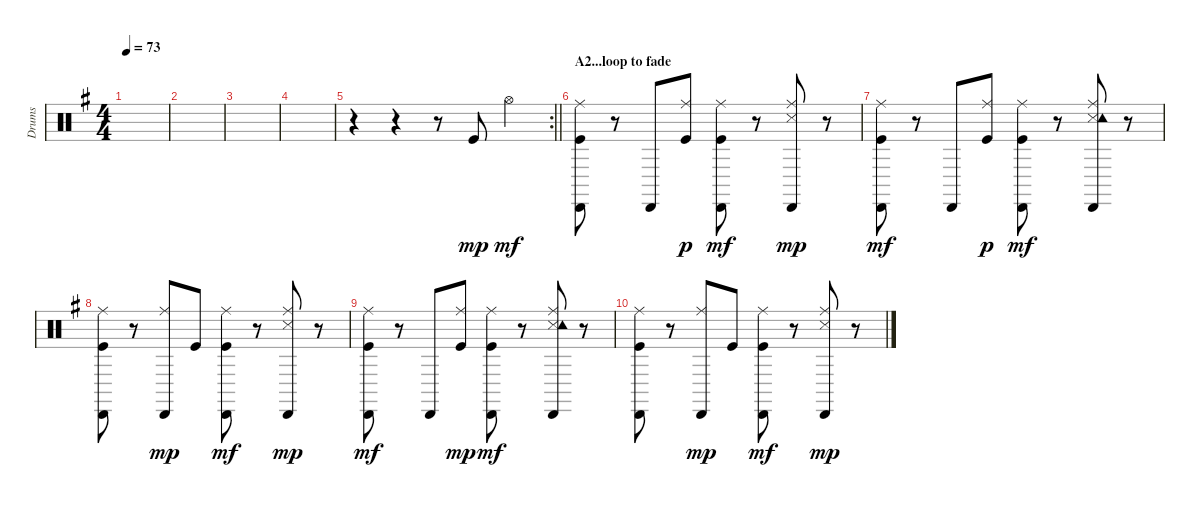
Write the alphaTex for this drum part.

\track ("Drums" "Drums") {instrument percussion}
\staff {score}
\articulation defaults
\ts (4 4)
\tempo 73
\clef neutral
\ks g
|
|
|
|
\rc 2
\barLineRight lightlight
r.4 r.4 r.8 "Kick (hit)".8{dy mp} "Hi-Hat (open)".4{dy mf} |
\section ("" "A2...loop to fade")
("Cabasa (hit)" "Ride (middle)" "Kick (hit)").8 r.8 "Cabasa (hit)".8 ("Ride (middle)" "Kick (hit)").8{dy p} ("Cabasa (hit)" "Ride (middle)" "Kick (hit)").8{dy mf} r.8 ("Cabasa (hit)" "Ride (middle)" "Snare (side stick) 3").8{dy mp} r.8 |
("Cabasa (hit)" "Ride (middle)" "Kick (hit)").8{dy mf} r.8 "Cabasa (hit)".8 ("Ride (middle)" "Kick (hit)").8{dy p} ("Cabasa (hit)" "Ride (middle)" "Kick (hit)").8{dy mf} r.8 ("Cabasa (hit)" "Ride (middle)" "Snare (side stick) 3" "Tambourine (hit)").8 r.8 |
("Cabasa (hit)" "Ride (middle)" "Kick (hit)").8 r.8 ("Cabasa (hit)" "Ride (middle)").8{dy mp} "Kick (hit)".8 ("Cabasa (hit)" "Ride (middle)" "Kick (hit)").8{dy mf} r.8 ("Cabasa (hit)" "Ride (middle)" "Snare (side stick) 3").8{dy mp} r.8 |
("Cabasa (hit)" "Ride (middle)" "Kick (hit)").8{dy mf} r.8 "Cabasa (hit)".8 ("Ride (middle)" "Kick (hit)").8{dy mp} ("Cabasa (hit)" "Ride (middle)" "Kick (hit)").8{dy mf} r.8 ("Cabasa (hit)" "Ride (middle)" "Snare (side stick) 3" "Tambourine (hit)").8 r.8 |
("Cabasa (hit)" "Ride (middle)" "Kick (hit)").8 r.8 ("Cabasa (hit)" "Ride (middle)").8{dy mp} "Kick (hit)".8 ("Cabasa (hit)" "Ride (middle)" "Kick (hit)").8{dy mf} r.8 ("Cabasa (hit)" "Ride (middle)" "Snare (side stick) 3").8{dy mp} r.8
